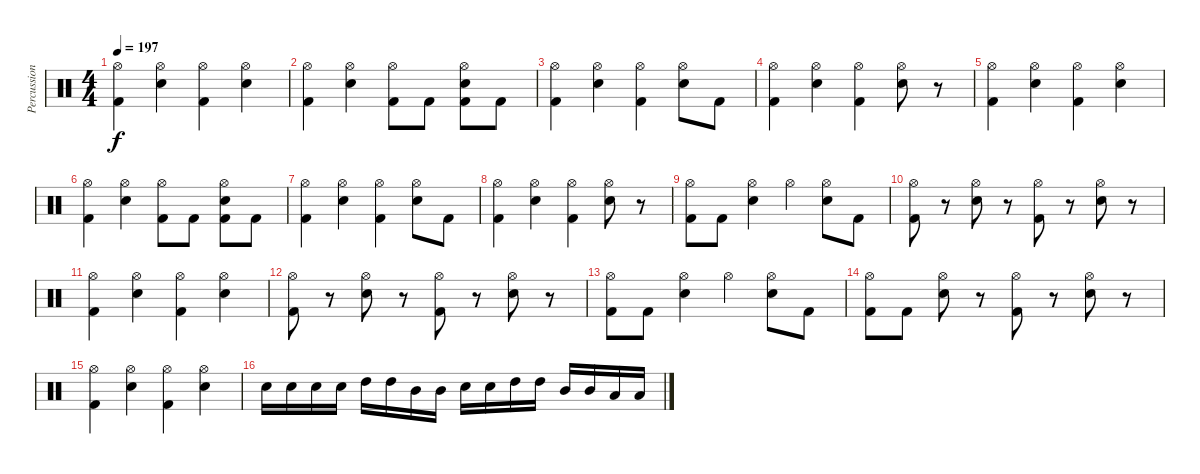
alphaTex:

\track ("Percussion" "Percussion") {instrument percussion}
\staff {score}
\articulation defaults
\ts (4 4)
\tempo 197
\clef neutral
\ks c
("Hi-Hat (open)" "Kick (hit) 2").4{dy f} ("Hi-Hat (open)" "Electric Snare (hit)").4 ("Hi-Hat (open)" "Kick (hit) 2").4 ("Hi-Hat (open)" "Electric Snare (hit)").4 |
("Hi-Hat (open)" "Kick (hit) 2").4 ("Hi-Hat (open)" "Electric Snare (hit)").4 ("Hi-Hat (open)" "Kick (hit) 2").8 "Kick (hit) 2".8 ("Hi-Hat (open)" "Electric Snare (hit)" "Kick (hit) 2").8 "Kick (hit) 2".8 |
("Hi-Hat (open)" "Kick (hit) 2").4 ("Hi-Hat (open)" "Electric Snare (hit)").4 ("Hi-Hat (open)" "Kick (hit) 2").4 ("Hi-Hat (open)" "Electric Snare (hit)").8 "Kick (hit) 2".8 |
("Hi-Hat (open)" "Kick (hit) 2").4 ("Hi-Hat (open)" "Electric Snare (hit)").4 ("Hi-Hat (open)" "Kick (hit) 2").4 ("Hi-Hat (open)" "Electric Snare (hit)").8 r.8 |
("Hi-Hat (open)" "Kick (hit) 2").4 ("Hi-Hat (open)" "Electric Snare (hit)").4 ("Hi-Hat (open)" "Kick (hit) 2").4 ("Hi-Hat (open)" "Electric Snare (hit)").4 |
("Hi-Hat (open)" "Kick (hit) 2").4 ("Hi-Hat (open)" "Electric Snare (hit)").4 ("Hi-Hat (open)" "Kick (hit) 2").8 "Kick (hit) 2".8 ("Hi-Hat (open)" "Electric Snare (hit)" "Kick (hit) 2").8 "Kick (hit) 2".8 |
("Hi-Hat (open)" "Kick (hit) 2").4 ("Hi-Hat (open)" "Electric Snare (hit)").4 ("Hi-Hat (open)" "Kick (hit) 2").4 ("Hi-Hat (open)" "Electric Snare (hit)").8 "Kick (hit) 2".8 |
("Hi-Hat (open)" "Kick (hit) 2").4 ("Hi-Hat (open)" "Electric Snare (hit)").4 ("Hi-Hat (open)" "Kick (hit) 2").4 ("Hi-Hat (open)" "Electric Snare (hit)").8 r.8 |
("Hi-Hat (open)" "Kick (hit) 2").8 "Kick (hit) 2".8 ("Hi-Hat (open)" "Electric Snare (hit)").4 "Hi-Hat (open)".4 ("Hi-Hat (open)" "Electric Snare (hit)").8 "Kick (hit) 2".8 |
("Hi-Hat (open)" "Kick (hit) 2").8 r.8 ("Hi-Hat (open)" "Electric Snare (hit)").8 r.8 ("Hi-Hat (open)" "Kick (hit) 2").8 r.8 ("Hi-Hat (open)" "Electric Snare (hit)").8 r.8 |
("Hi-Hat (open)" "Kick (hit) 2").4 ("Hi-Hat (open)" "Electric Snare (hit)").4 ("Hi-Hat (open)" "Kick (hit) 2").4 ("Hi-Hat (open)" "Electric Snare (hit)").4 |
("Hi-Hat (open)" "Kick (hit) 2").8 r.8 ("Hi-Hat (open)" "Electric Snare (hit)").8 r.8 ("Hi-Hat (open)" "Kick (hit) 2").8 r.8 ("Hi-Hat (open)" "Electric Snare (hit)").8 r.8 |
("Hi-Hat (open)" "Kick (hit) 2").8 "Kick (hit) 2".8 ("Hi-Hat (open)" "Electric Snare (hit)").4 "Hi-Hat (open)".4 ("Hi-Hat (open)" "Electric Snare (hit)").8 "Kick (hit) 2".8 |
("Hi-Hat (open)" "Kick (hit) 2").8 "Kick (hit) 2".8 ("Hi-Hat (open)" "Electric Snare (hit)").8 r.8 ("Hi-Hat (open)" "Kick (hit) 2").8 r.8 ("Hi-Hat (open)" "Electric Snare (hit)").8 r.8 |
("Hi-Hat (open)" "Kick (hit) 2").4 ("Hi-Hat (open)" "Electric Snare (hit)").4 ("Hi-Hat (open)" "Kick (hit) 2").4 ("Hi-Hat (open)" "Electric Snare (hit)").4 |
"Electric Snare (hit)".16 "Electric Snare (hit)".16 "Electric Snare (hit)".16 "Electric Snare (hit)".16 "High Tom (hit)".16 "High Tom (hit)".16 "Mid Tom (hit)".16 "Mid Tom (hit)".16 "Electric Snare (hit)".16 "Electric Snare (hit)".16 "High Tom (hit)".16 "High Tom (hit)".16 "Mid Tom (hit)".16 "Mid Tom (hit)".16 "Low Tom (hit)".16 "Low Tom (hit)".16
